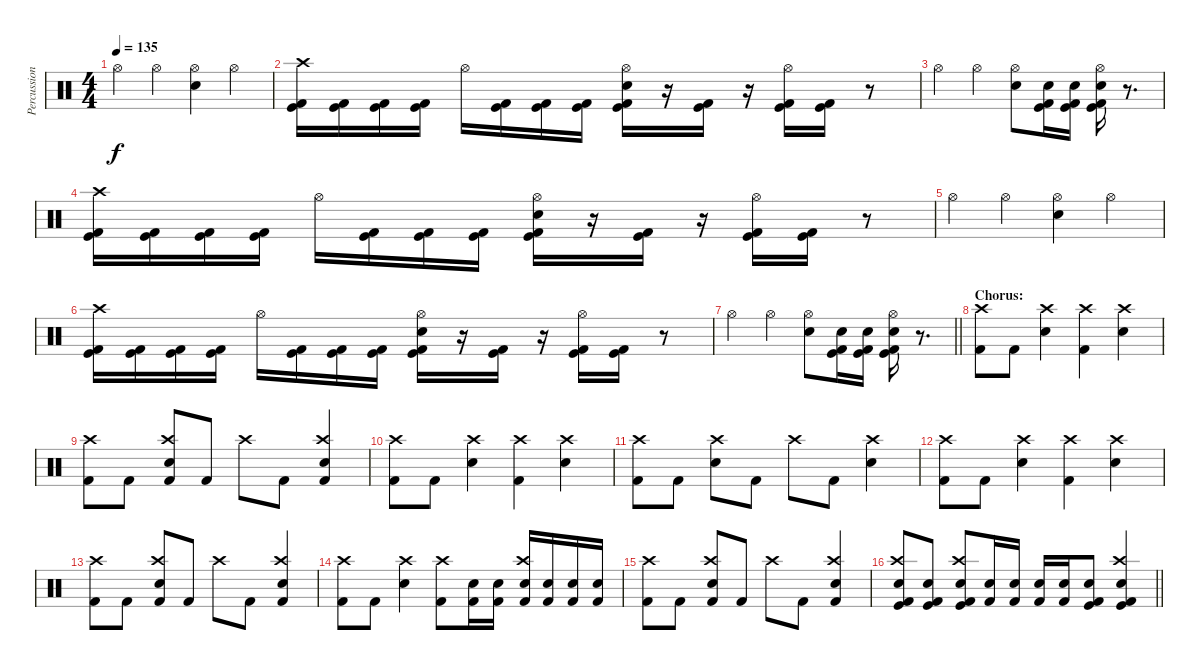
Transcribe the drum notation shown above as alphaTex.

\track ("Percussion" "Percussion") {instrument percussion}
\staff {score}
\articulation defaults
\ts (4 4)
\tempo 135
\clef neutral
\ks c "Hi-Hat (open)".4{dy f} "Hi-Hat (open)".4
("Hi-Hat (open)" "Electric Snare (hit)").4 "Hi-Hat (open)".4 |
("Crash high (hit)" "Kick (hit)" "Kick (hit) 2").16 ("Kick (hit)" "Kick (hit) 2").16 ("Kick (hit)" "Kick (hit) 2").16 ("Kick (hit)" "Kick (hit) 2").16 "Hi-Hat (open)".16 ("Kick (hit)" "Kick (hit) 2").16 ("Kick (hit)" "Kick (hit) 2").16 ("Kick (hit)" "Kick (hit) 2").16 ("Hi-Hat (open)" "Electric Snare (hit)" "Kick (hit)" "Kick (hit) 2").16 r.16 ("Kick (hit)" "Kick (hit) 2").16 r.16 ("Hi-Hat (open)" "Kick (hit)" "Kick (hit) 2").16 ("Kick (hit)" "Kick (hit) 2").16 r.8 |
"Hi-Hat (open)".4 "Hi-Hat (open)".4 ("Hi-Hat (open)" "Electric Snare (hit)").8 ("Electric Snare (hit)" "Kick (hit)" "Kick (hit) 2").16 ("Electric Snare (hit)" "Kick (hit)" "Kick (hit) 2").16 ("Hi-Hat (open)" "Electric Snare (hit)" "Kick (hit)" "Kick (hit) 2").16 r.8{d} |
("Crash high (hit)" "Kick (hit)" "Kick (hit) 2").16 ("Kick (hit)" "Kick (hit) 2").16 ("Kick (hit)" "Kick (hit) 2").16 ("Kick (hit)" "Kick (hit) 2").16 "Hi-Hat (open)".16 ("Kick (hit)" "Kick (hit) 2").16 ("Kick (hit)" "Kick (hit) 2").16 ("Kick (hit)" "Kick (hit) 2").16 ("Hi-Hat (open)" "Electric Snare (hit)" "Kick (hit)" "Kick (hit) 2").16 r.16 ("Kick (hit)" "Kick (hit) 2").16 r.16 ("Hi-Hat (open)" "Kick (hit)" "Kick (hit) 2").16 ("Kick (hit)" "Kick (hit) 2").16 r.8 |
"Hi-Hat (open)".4 "Hi-Hat (open)".4 ("Hi-Hat (open)" "Electric Snare (hit)").4 "Hi-Hat (open)".4 |
("Crash high (hit)" "Kick (hit)" "Kick (hit) 2").16 ("Kick (hit)" "Kick (hit) 2").16 ("Kick (hit)" "Kick (hit) 2").16 ("Kick (hit)" "Kick (hit) 2").16 "Hi-Hat (open)".16 ("Kick (hit)" "Kick (hit) 2").16 ("Kick (hit)" "Kick (hit) 2").16 ("Kick (hit)" "Kick (hit) 2").16 ("Hi-Hat (open)" "Electric Snare (hit)" "Kick (hit)" "Kick (hit) 2").16 r.16 ("Kick (hit)" "Kick (hit) 2").16 r.16 ("Hi-Hat (open)" "Kick (hit)" "Kick (hit) 2").16 ("Kick (hit)" "Kick (hit) 2").16 r.8 |
\barLineRight lightlight "Hi-Hat (open)".4 "Hi-Hat (open)".4
("Hi-Hat (open)" "Electric Snare (hit)").8 ("Electric Snare (hit)" "Kick (hit)" "Kick (hit) 2").16 ("Electric Snare (hit)" "Kick (hit)" "Kick (hit) 2").16 ("Hi-Hat (open)" "Electric Snare (hit)" "Kick (hit)" "Kick (hit) 2").16 r.8{d} |
\section ("" "Chorus:")
("Crash high (hit)" "Kick (hit) 2").8 "Kick (hit) 2".8 ("Crash high (hit)" "Electric Snare (hit)").4 ("Crash high (hit)" "Kick (hit) 2").4 ("Crash high (hit)" "Electric Snare (hit)").4 |
("Crash high (hit)" "Kick (hit) 2").8 "Kick (hit) 2".8 ("Crash high (hit)" "Electric Snare (hit)" "Kick (hit) 2").8 "Kick (hit) 2".8 "Crash high (hit)".8 "Kick (hit) 2".8 ("Crash high (hit)" "Electric Snare (hit)" "Kick (hit) 2").4 |
("Crash high (hit)" "Kick (hit) 2").8 "Kick (hit) 2".8 ("Crash high (hit)" "Electric Snare (hit)").4 ("Crash high (hit)" "Kick (hit) 2").4 ("Crash high (hit)" "Electric Snare (hit)").4 |
("Crash high (hit)" "Kick (hit) 2").8 "Kick (hit) 2".8 ("Crash high (hit)" "Electric Snare (hit)").8 "Kick (hit) 2".8 "Crash high (hit)".8 "Kick (hit) 2".8 ("Crash high (hit)" "Electric Snare (hit)").4 |
("Crash high (hit)" "Kick (hit) 2").8 "Kick (hit) 2".8 ("Crash high (hit)" "Electric Snare (hit)").4 ("Crash high (hit)" "Kick (hit) 2").4 ("Crash high (hit)" "Electric Snare (hit)").4 |
("Crash high (hit)" "Kick (hit) 2").8 "Kick (hit) 2".8 ("Crash high (hit)" "Electric Snare (hit)" "Kick (hit) 2").8 "Kick (hit) 2".8 "Crash high (hit)".8 "Kick (hit) 2".8 ("Crash high (hit)" "Electric Snare (hit)" "Kick (hit) 2").4 |
("Crash high (hit)" "Kick (hit) 2").8 "Kick (hit) 2".8 ("Crash high (hit)" "Electric Snare (hit)").4 ("Crash high (hit)" "Kick (hit) 2").8 ("Electric Snare (hit)" "Kick (hit) 2").16 ("Electric Snare (hit)" "Kick (hit) 2").16 ("Crash high (hit)" "Electric Snare (hit)" "Kick (hit) 2").16 ("Electric Snare (hit)" "Kick (hit) 2").16 ("Electric Snare (hit)" "Kick (hit) 2").16 ("Electric Snare (hit)" "Kick (hit) 2").16 |
("Crash high (hit)" "Kick (hit) 2").8 "Kick (hit) 2".8 ("Crash high (hit)" "Electric Snare (hit)" "Kick (hit) 2").8 "Kick (hit) 2".8 "Crash high (hit)".8 "Kick (hit) 2".8 ("Crash high (hit)" "Electric Snare (hit)" "Kick (hit) 2").4 |
\barLineRight lightlight
("Crash high (hit)" "Electric Snare (hit)" "Kick (hit)" "Kick (hit) 2").8 ("Electric Snare (hit)" "Kick (hit)" "Kick (hit) 2").8 ("Crash high (hit)" "Electric Snare (hit)" "Kick (hit)" "Kick (hit) 2").8 ("Electric Snare (hit)" "Kick (hit) 2").16 ("Electric Snare (hit)" "Kick (hit) 2").16 ("Electric Snare (hit)" "Kick (hit) 2").16 ("Electric Snare (hit)" "Kick (hit) 2").16 ("Electric Snare (hit)" "Kick (hit)" "Kick (hit) 2").8 ("Crash high (hit)" "Electric Snare (hit)" "Kick (hit)" "Kick (hit) 2").4
